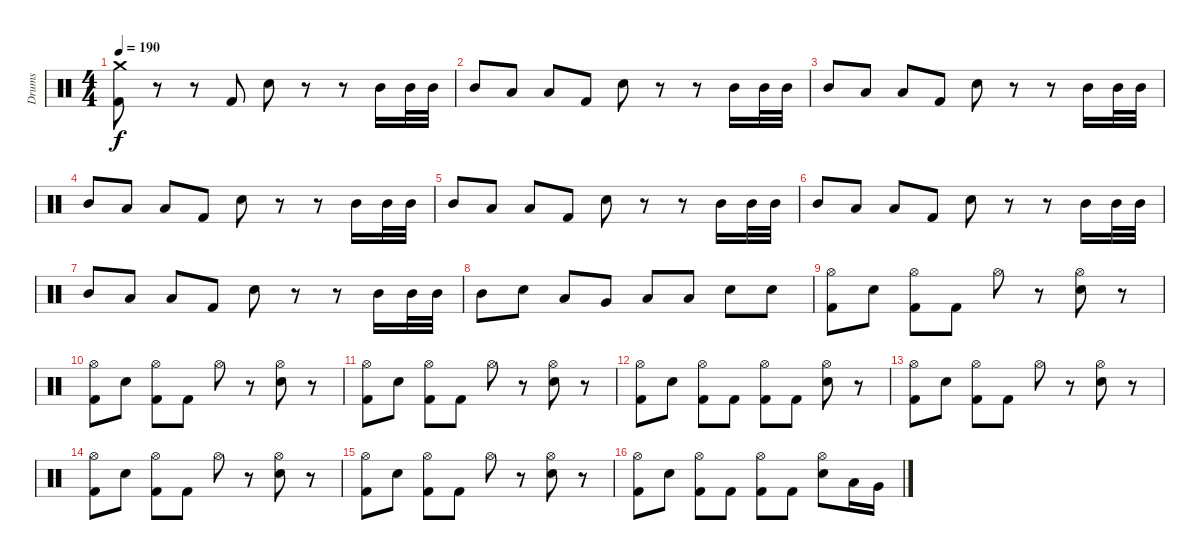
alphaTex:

\track ("Drums" "Drums") {instrument percussion}
\staff {score}
\articulation defaults
\ts (4 4)
\tempo 190
\clef neutral
\ks c
("Crash medium (hit)" "Kick (hit) 2").8{dy f} r.8 r.8 "Kick (hit) 2".8 "Electric Snare (hit)".8 r.8 r.8 "Mid Tom (hit)".16 "Mid Tom (hit)".32 "Mid Tom (hit)".32 |
"Mid Tom (hit)".8 "Low Tom (hit)".8 "Low Floor Tom (hit)".8 "Kick (hit) 2".8 "Electric Snare (hit)".8 r.8 r.8 "Mid Tom (hit)".16 "Mid Tom (hit)".32 "Mid Tom (hit)".32 |
"Mid Tom (hit)".8 "Low Tom (hit)".8 "Low Floor Tom (hit)".8 "Kick (hit) 2".8 "Electric Snare (hit)".8 r.8 r.8 "Mid Tom (hit)".16 "Mid Tom (hit)".32 "Mid Tom (hit)".32 |
"Mid Tom (hit)".8 "Low Tom (hit)".8 "Low Floor Tom (hit)".8 "Kick (hit) 2".8 "Electric Snare (hit)".8 r.8 r.8 "Mid Tom (hit)".16 "Mid Tom (hit)".32 "Mid Tom (hit)".32 |
"Mid Tom (hit)".8 "Low Tom (hit)".8 "Low Floor Tom (hit)".8 "Kick (hit) 2".8 "Electric Snare (hit)".8 r.8 r.8 "Mid Tom (hit)".16 "Mid Tom (hit)".32 "Mid Tom (hit)".32 |
"Mid Tom (hit)".8 "Low Tom (hit)".8 "Low Floor Tom (hit)".8 "Kick (hit) 2".8 "Electric Snare (hit)".8 r.8 r.8 "Mid Tom (hit)".16 "Mid Tom (hit)".32 "Mid Tom (hit)".32 |
"Mid Tom (hit)".8 "Low Tom (hit)".8 "Low Floor Tom (hit)".8 "Kick (hit) 2".8 "Electric Snare (hit)".8 r.8 r.8 "Mid Tom (hit)".16 "Mid Tom (hit)".32 "Mid Tom (hit)".32 |
"Mid Tom (hit)".8 "Electric Snare (hit)".8 "Low Tom (hit)".8 "Very Low Tom (hit)".8 "Low Floor Tom (hit)".8 "Low Floor Tom (hit)".8 "Electric Snare (hit)".8 "Electric Snare (hit)".8 |
("Hi-Hat (open)" "Kick (hit) 2").8 "Electric Snare (hit)".8 ("Hi-Hat (open)" "Kick (hit) 2").8 "Kick (hit) 2".8 "Hi-Hat (open)".8 r.8 ("Hi-Hat (open)" "Electric Snare (hit)").8 r.8 |
("Hi-Hat (open)" "Kick (hit) 2").8 "Electric Snare (hit)".8 ("Hi-Hat (open)" "Kick (hit) 2").8 "Kick (hit) 2".8 "Hi-Hat (open)".8 r.8 ("Hi-Hat (open)" "Electric Snare (hit)").8 r.8 |
("Hi-Hat (open)" "Kick (hit) 2").8 "Electric Snare (hit)".8 ("Hi-Hat (open)" "Kick (hit) 2").8 "Kick (hit) 2".8 "Hi-Hat (open)".8 r.8 ("Hi-Hat (open)" "Electric Snare (hit)").8 r.8 |
("Hi-Hat (open)" "Kick (hit) 2").8 "Electric Snare (hit)".8 ("Hi-Hat (open)" "Kick (hit) 2").8 "Kick (hit) 2".8 ("Hi-Hat (open)" "Kick (hit) 2").8 "Kick (hit) 2".8 ("Hi-Hat (open)" "Electric Snare (hit)").8 r.8 |
("Hi-Hat (open)" "Kick (hit) 2").8 "Electric Snare (hit)".8 ("Hi-Hat (open)" "Kick (hit) 2").8 "Kick (hit) 2".8 "Hi-Hat (open)".8 r.8 ("Hi-Hat (open)" "Electric Snare (hit)").8 r.8 |
("Hi-Hat (open)" "Kick (hit) 2").8 "Electric Snare (hit)".8 ("Hi-Hat (open)" "Kick (hit) 2").8 "Kick (hit) 2".8 "Hi-Hat (open)".8 r.8 ("Hi-Hat (open)" "Electric Snare (hit)").8 r.8 |
("Hi-Hat (open)" "Kick (hit) 2").8 "Electric Snare (hit)".8 ("Hi-Hat (open)" "Kick (hit) 2").8 "Kick (hit) 2".8 "Hi-Hat (open)".8 r.8 ("Hi-Hat (open)" "Electric Snare (hit)").8 r.8 |
("Hi-Hat (open)" "Kick (hit) 2").8 "Electric Snare (hit)".8 ("Hi-Hat (open)" "Kick (hit) 2").8 "Kick (hit) 2".8 ("Hi-Hat (open)" "Kick (hit) 2").8 "Kick (hit) 2".8 ("Hi-Hat (open)" "Electric Snare (hit)").8 "Low Tom (hit)".16 "Very Low Tom (hit)".16
